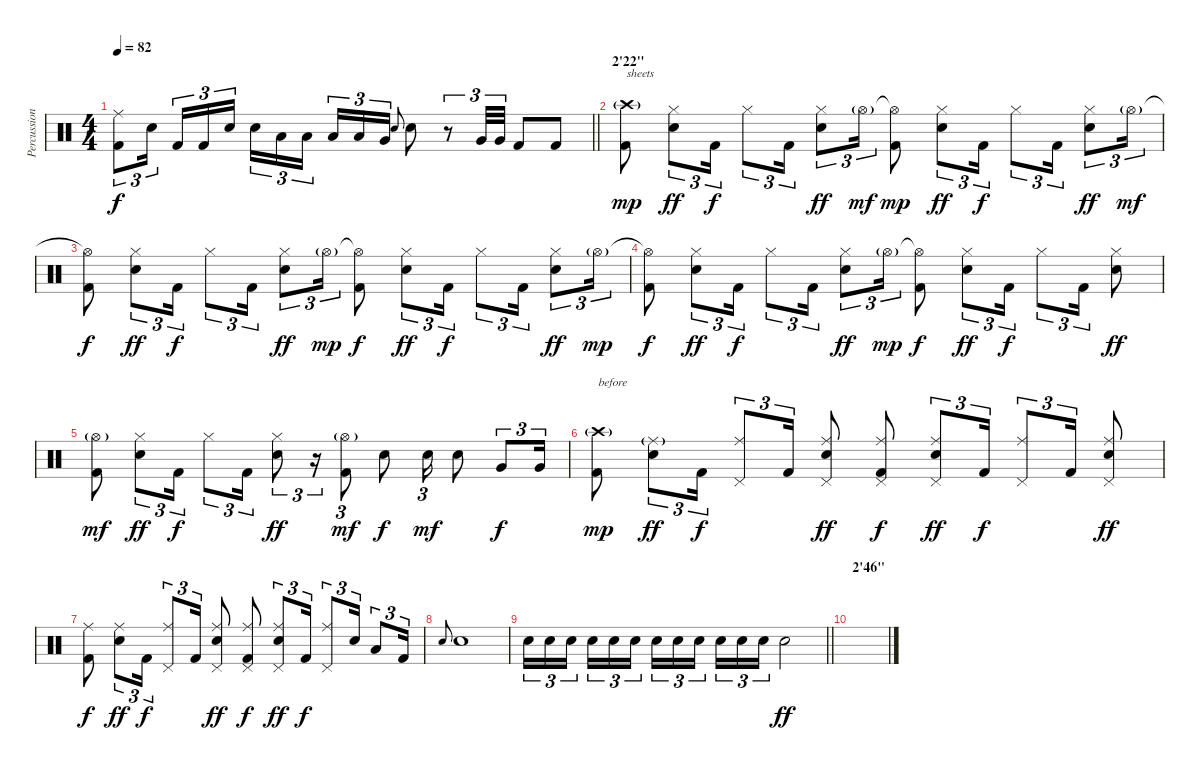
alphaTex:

\track ("Percussions" "Percussion") {instrument percussion}
\staff {score}
\articulation defaults
\ts (4 4)
\tempo 82
\clef neutral
\barLineRight lightlight
\ks c
("Ride (middle)" "Kick (hit) 2").8{tu (3 2) dy f} "Electric Snare (hit)".16{tu (3 2) beam splitsecondary} "Kick (hit) 2".16{tu (3 2)} "Kick (hit) 2".16{tu (3 2)} "Electric Snare (hit)".16{tu (3 2)} "Electric Snare (hit)".16{tu (3 2)} "Low Tom (hit)".16{tu (3 2)} "Low Tom (hit)".16{tu (3 2) beam splitsecondary} "Low Tom (hit)".16{tu (3 2)} "Low Tom (hit)".16{tu (3 2)} "Very Low Tom (hit)".16{tu (3 2)} "Electric Snare (hit)".8{gr onbeat} "Electric Snare (hit)".8 r.8{tu (3 2)} "Very Low Tom (hit)".32{tu (3 2)} "Very Low Tom (hit)".32{tu (3 2)} "Kick (hit) 2".8 "Kick (hit) 2".8 |
\section ("" "2'22\"")
("Crash high (hit)"{g} "Kick (hit) 2").8{txt "sheets" dy mp} ("Hi-Hat (closed)" "Electric Snare (hit)").8{tu (3 2) dy ff} "Kick (hit) 2".16{tu (3 2) dy f} "Hi-Hat (closed)".8{tu (3 2)} "Kick (hit) 2".16{tu (3 2)} ("Hi-Hat (closed)" "Electric Snare (hit)").8{tu (3 2) dy ff} "Hi-Hat (open)"{g}.16{tu (3 2) dy mf} ("Hi-Hat (open)"{t} "Kick (hit) 2").8{dy mp} ("Hi-Hat (closed)" "Electric Snare (hit)").8{tu (3 2) dy ff} "Kick (hit) 2".16{tu (3 2) dy f} "Hi-Hat (closed)".8{tu (3 2)} "Kick (hit) 2".16{tu (3 2)} ("Hi-Hat (closed)" "Electric Snare (hit)").8{tu (3 2) dy ff} "Hi-Hat (open)"{g}.16{tu (3 2) dy mf} |
("Hi-Hat (open)"{t} "Kick (hit) 2").8{dy f} ("Hi-Hat (closed)" "Electric Snare (hit)").8{tu (3 2) dy ff} "Kick (hit) 2".16{tu (3 2) dy f} "Hi-Hat (closed)".8{tu (3 2)} "Kick (hit) 2".16{tu (3 2)} ("Hi-Hat (closed)" "Electric Snare (hit)").8{tu (3 2) dy ff} "Hi-Hat (open)"{g}.16{tu (3 2) dy mp} ("Hi-Hat (open)"{t} "Kick (hit) 2").8{dy f} ("Hi-Hat (closed)" "Electric Snare (hit)").8{tu (3 2) dy ff} "Kick (hit) 2".16{tu (3 2) dy f} "Hi-Hat (closed)".8{tu (3 2)} "Kick (hit) 2".16{tu (3 2)} ("Hi-Hat (closed)" "Electric Snare (hit)").8{tu (3 2) dy ff} "Hi-Hat (open)"{g}.16{tu (3 2) dy mp} |
("Hi-Hat (open)"{t} "Kick (hit) 2").8{dy f} ("Hi-Hat (closed)" "Electric Snare (hit)").8{tu (3 2) dy ff} "Kick (hit) 2".16{tu (3 2) dy f} "Hi-Hat (closed)".8{tu (3 2)} "Kick (hit) 2".16{tu (3 2)} ("Hi-Hat (closed)" "Electric Snare (hit)").8{tu (3 2) dy ff} "Hi-Hat (open)"{g}.16{tu (3 2) dy mp} ("Hi-Hat (open)"{t} "Kick (hit) 2").8{dy f} ("Hi-Hat (closed)" "Electric Snare (hit)").8{tu (3 2) dy ff} "Kick (hit) 2".16{tu (3 2) dy f} "Hi-Hat (closed)".8{tu (3 2)} "Kick (hit) 2".16{tu (3 2)} ("Hi-Hat (closed)" "Electric Snare (hit)").8{dy ff} |
("Hi-Hat (open)"{g} "Kick (hit) 2").8{dy mf} ("Hi-Hat (closed)" "Electric Snare (hit)").8{tu (3 2) dy ff} "Kick (hit) 2".16{tu (3 2) dy f} "Hi-Hat (closed)".8{tu (3 2)} "Kick (hit) 2".16{tu (3 2)} ("Hi-Hat (closed)" "Electric Snare (hit)").8{tu (3 2) dy ff} r.16{tu (3 2)} ("Hi-Hat (open)"{g} "Kick (hit) 2").8{tu (3 2) dy mf} "Electric Snare (hit)".8{dy f} "Electric Snare (hit)".16{tu (3 2) dy mf} "Electric Snare (hit)".8 "Very Low Tom (hit)".8{tu (3 2) dy f} "Very Low Tom (hit)".16{tu (3 2)} |
("Crash high (hit)"{g} "Kick (hit) 2").8{txt "before" dy mp} ("Ride (middle)"{g} "Electric Snare (hit)").8{tu (3 2) dy ff} "Kick (hit) 2".16{tu (3 2) dy f} ("Ride (middle)" "Pedal Hi-Hat (hit)").8{tu (3 2)} "Kick (hit) 2".16{tu (3 2)} ("Ride (middle)" "Electric Snare (hit)" "Pedal Hi-Hat (hit)").8{dy ff} ("Ride (middle)" "Kick (hit) 2" "Pedal Hi-Hat (hit)").8{dy f} ("Ride (middle)" "Electric Snare (hit)" "Pedal Hi-Hat (hit)").8{tu (3 2) dy ff} "Kick (hit) 2".16{tu (3 2) dy f} ("Ride (middle)" "Pedal Hi-Hat (hit)").8{tu (3 2)} "Kick (hit) 2".16{tu (3 2)} ("Ride (middle)" "Electric Snare (hit)" "Pedal Hi-Hat (hit)").8{dy ff} |
("Ride (middle)" "Kick (hit) 2").8{dy f} ("Ride (middle)" "Electric Snare (hit)").8{tu (3 2) dy ff} "Kick (hit) 2".16{tu (3 2) dy f} ("Ride (middle)" "Pedal Hi-Hat (hit)").8{tu (3 2)} "Kick (hit) 2".16{tu (3 2)} ("Ride (middle)" "Electric Snare (hit)" "Pedal Hi-Hat (hit)").8{dy ff} ("Ride (middle)" "Kick (hit) 2" "Pedal Hi-Hat (hit)").8{dy f} ("Ride (middle)" "Electric Snare (hit)" "Pedal Hi-Hat (hit)").8{tu (3 2) dy ff} "Kick (hit) 2".16{tu (3 2) dy f} ("Ride (middle)" "Pedal Hi-Hat (hit)").8{tu (3 2)} "Electric Snare (hit)".16{tu (3 2)} "Low Tom (hit)".8{tu (3 2)} "Kick (hit) 2".16{tu (3 2)} |
"Electric Snare (hit)".8{gr onbeat} "Electric Snare (hit)".1 |
\barLineRight lightlight "Electric Snare (hit)".16{tu (3 2)} "Electric Snare (hit)".16{tu (3 2)} "Electric Snare (hit)".16{tu (3 2) beam splitsecondary} "Electric Snare (hit)".16{tu (3 2)} "Electric Snare (hit)".16{tu (3 2)} "Electric Snare (hit)".16{tu (3 2)} "Electric Snare (hit)".16{tu (3 2)} "Electric Snare (hit)".16{tu (3 2)} "Electric Snare (hit)".16{tu (3 2) beam splitsecondary} "Electric Snare (hit)".16{tu (3 2)} "Electric Snare (hit)".16{tu (3 2)} "Electric Snare (hit)".16{tu (3 2)} "Electric Snare (hit)".2{dy ff}
|
\section ("" "2'46\"")
